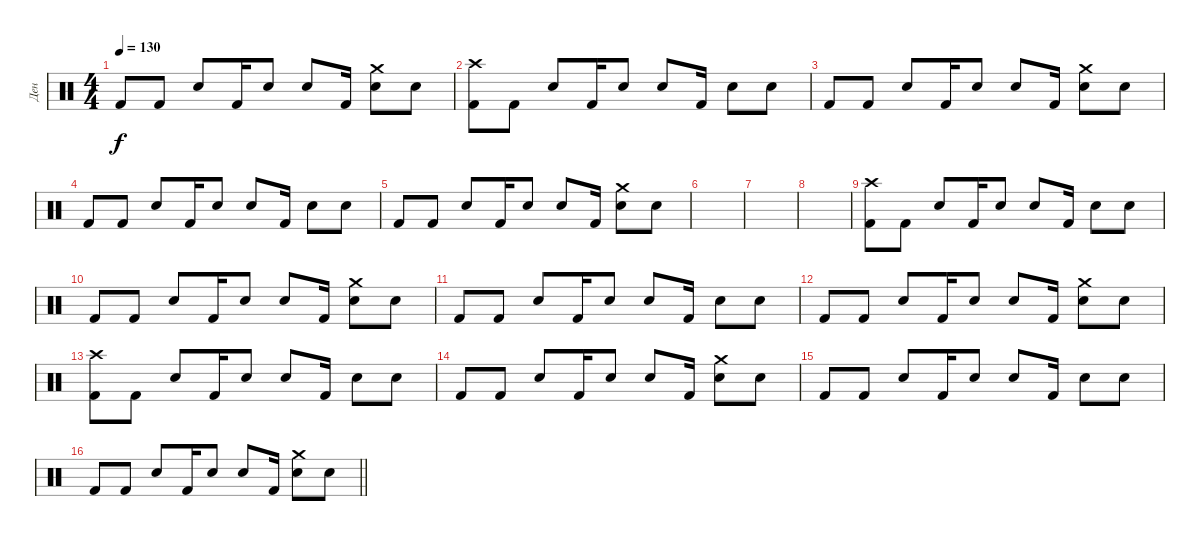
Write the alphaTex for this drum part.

\track ("Ден" "Ден") {instrument percussion}
\staff {score}
\articulation defaults
\ts (4 4)
\tempo 130
\clef neutral
\ks c "Kick (hit) 2".8{dy f} "Kick (hit) 2".8 "Snare (hit) 2".8 "Kick (hit) 2".16 "Snare (hit) 2".8 "Snare (hit) 2".8 "Kick (hit) 2".16
("Crash medium (hit)" "Snare (hit) 2").8 "Snare (hit)".8 |
("Crash high (hit)" "Kick (hit) 2").8 "Kick (hit) 2".8 "Snare (hit) 2".8 "Kick (hit) 2".16 "Snare (hit) 2".8 "Snare (hit) 2".8 "Kick (hit) 2".16 "Snare (hit) 2".8 "Snare (hit)".8 |
"Kick (hit) 2".8 "Kick (hit) 2".8 "Snare (hit) 2".8 "Kick (hit) 2".16 "Snare (hit) 2".8 "Snare (hit) 2".8 "Kick (hit) 2".16 ("Crash medium (hit)" "Snare (hit) 2").8 "Snare (hit)".8 |
"Kick (hit) 2".8 "Kick (hit) 2".8 "Snare (hit) 2".8 "Kick (hit) 2".16 "Snare (hit) 2".8 "Snare (hit) 2".8 "Kick (hit) 2".16 "Snare (hit) 2".8 "Snare (hit)".8 |
"Kick (hit) 2".8 "Kick (hit) 2".8 "Snare (hit) 2".8 "Kick (hit) 2".16 "Snare (hit) 2".8 "Snare (hit) 2".8 "Kick (hit) 2".16 ("Crash medium (hit)" "Snare (hit) 2").8 "Snare (hit)".8 |
|
|
|
("Crash high (hit)" "Kick (hit) 2").8 "Kick (hit) 2".8 "Snare (hit) 2".8 "Kick (hit) 2".16 "Snare (hit) 2".8 "Snare (hit) 2".8 "Kick (hit) 2".16 "Snare (hit) 2".8 "Snare (hit)".8 |
"Kick (hit) 2".8 "Kick (hit) 2".8 "Snare (hit) 2".8 "Kick (hit) 2".16 "Snare (hit) 2".8 "Snare (hit) 2".8 "Kick (hit) 2".16 ("Crash medium (hit)" "Snare (hit) 2").8 "Snare (hit)".8 |
"Kick (hit) 2".8 "Kick (hit) 2".8 "Snare (hit) 2".8 "Kick (hit) 2".16 "Snare (hit) 2".8 "Snare (hit) 2".8 "Kick (hit) 2".16 "Snare (hit) 2".8 "Snare (hit)".8 |
"Kick (hit) 2".8 "Kick (hit) 2".8 "Snare (hit) 2".8 "Kick (hit) 2".16 "Snare (hit) 2".8 "Snare (hit) 2".8 "Kick (hit) 2".16 ("Crash medium (hit)" "Snare (hit) 2").8 "Snare (hit)".8 |
("Crash high (hit)" "Kick (hit) 2").8 "Kick (hit) 2".8 "Snare (hit) 2".8 "Kick (hit) 2".16 "Snare (hit) 2".8 "Snare (hit) 2".8 "Kick (hit) 2".16 "Snare (hit) 2".8 "Snare (hit)".8 |
"Kick (hit) 2".8 "Kick (hit) 2".8 "Snare (hit) 2".8 "Kick (hit) 2".16 "Snare (hit) 2".8 "Snare (hit) 2".8 "Kick (hit) 2".16 ("Crash medium (hit)" "Snare (hit) 2").8 "Snare (hit)".8 |
"Kick (hit) 2".8 "Kick (hit) 2".8 "Snare (hit) 2".8 "Kick (hit) 2".16 "Snare (hit) 2".8 "Snare (hit) 2".8 "Kick (hit) 2".16 "Snare (hit) 2".8 "Snare (hit)".8 |
\barLineRight lightlight "Kick (hit) 2".8 "Kick (hit) 2".8 "Snare (hit) 2".8 "Kick (hit) 2".16 "Snare (hit) 2".8 "Snare (hit) 2".8 "Kick (hit) 2".16
("Crash medium (hit)" "Snare (hit) 2").8 "Snare (hit)".8
